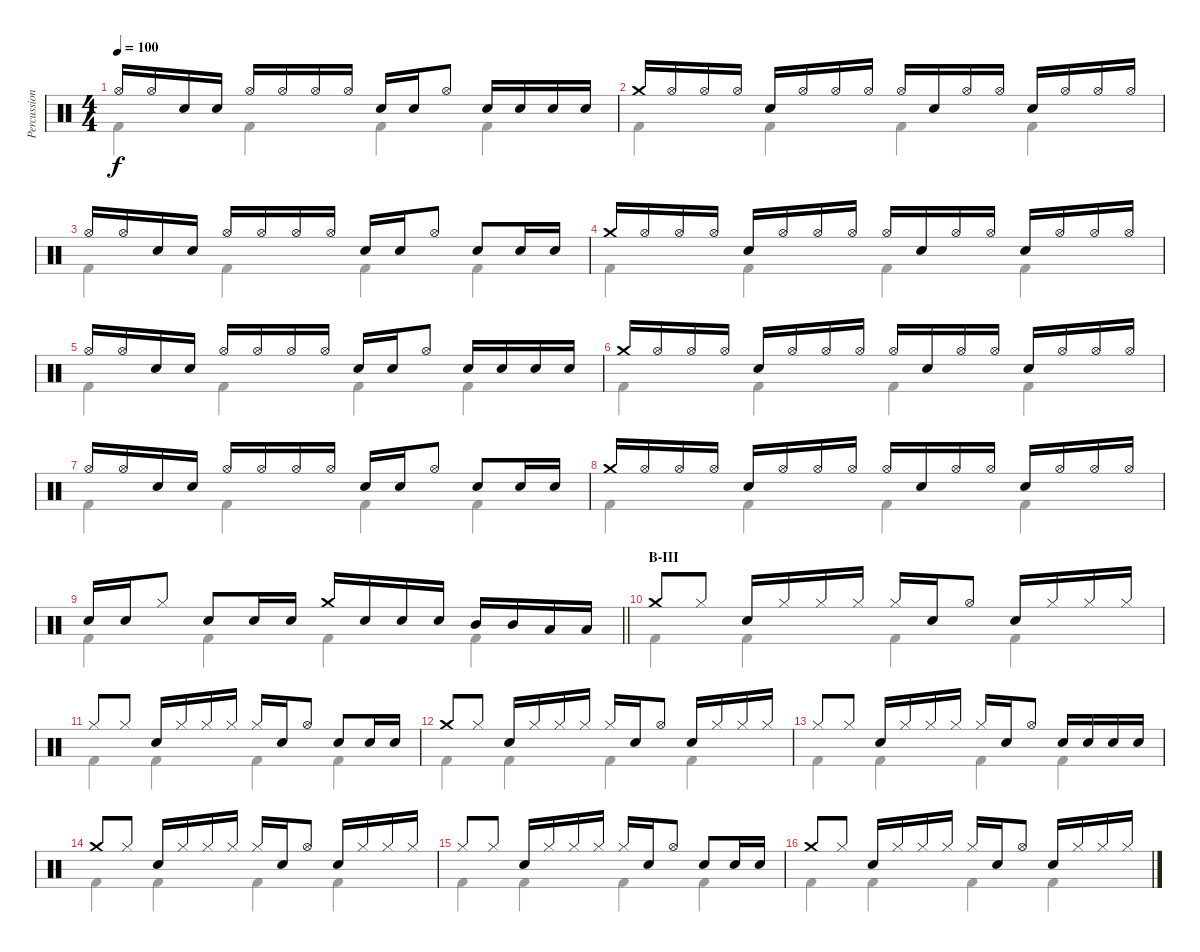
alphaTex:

\track ("Percussion" "Percussion") {instrument percussion}
\staff {score}
\articulation defaults
\voice
\ts (4 4)
\tempo 100
\clef neutral
\ks c "Hi-Hat (open)".16{dy f} "Hi-Hat (open)".16 "Snare (hit) 2".16 "Snare (hit) 2".16 "Hi-Hat (open)".16 "Hi-Hat (open)".16 "Hi-Hat (open)".16 "Hi-Hat (open)".16 "Snare (hit) 2".16 "Snare (hit) 2".16 "Hi-Hat (open)".8 "Snare (hit) 2".16 "Snare (hit) 2".16 "Snare (hit) 2".16 "Snare (hit) 2".16
|
"Crash medium (hit)".16 "Hi-Hat (open)".16 "Hi-Hat (open)".16 "Hi-Hat (open)".16 "Snare (hit) 2".16 "Hi-Hat (open)".16 "Hi-Hat (open)".16 "Hi-Hat (open)".16 "Hi-Hat (open)".16 "Snare (hit) 2".16 "Hi-Hat (open)".16 "Hi-Hat (open)".16 "Snare (hit) 2".16 "Hi-Hat (open)".16 "Hi-Hat (open)".16 "Hi-Hat (open)".16 |
"Hi-Hat (open)".16 "Hi-Hat (open)".16 "Snare (hit) 2".16 "Snare (hit) 2".16 "Hi-Hat (open)".16 "Hi-Hat (open)".16 "Hi-Hat (open)".16 "Hi-Hat (open)".16 "Snare (hit) 2".16 "Snare (hit) 2".16 "Hi-Hat (open)".8 "Snare (hit) 2".8 "Snare (hit) 2".16 "Snare (hit) 2".16 |
"Crash medium (hit)".16 "Hi-Hat (open)".16 "Hi-Hat (open)".16 "Hi-Hat (open)".16 "Snare (hit) 2".16 "Hi-Hat (open)".16 "Hi-Hat (open)".16 "Hi-Hat (open)".16 "Hi-Hat (open)".16 "Snare (hit) 2".16 "Hi-Hat (open)".16 "Hi-Hat (open)".16 "Snare (hit) 2".16 "Hi-Hat (open)".16 "Hi-Hat (open)".16 "Hi-Hat (open)".16 |
"Hi-Hat (open)".16 "Hi-Hat (open)".16 "Snare (hit) 2".16 "Snare (hit) 2".16 "Hi-Hat (open)".16 "Hi-Hat (open)".16 "Hi-Hat (open)".16 "Hi-Hat (open)".16 "Snare (hit) 2".16 "Snare (hit) 2".16 "Hi-Hat (open)".8 "Snare (hit) 2".16 "Snare (hit) 2".16 "Snare (hit) 2".16 "Snare (hit) 2".16 |
"Crash medium (hit)".16 "Hi-Hat (open)".16 "Hi-Hat (open)".16 "Hi-Hat (open)".16 "Snare (hit) 2".16 "Hi-Hat (open)".16 "Hi-Hat (open)".16 "Hi-Hat (open)".16 "Hi-Hat (open)".16 "Snare (hit) 2".16 "Hi-Hat (open)".16 "Hi-Hat (open)".16 "Snare (hit) 2".16 "Hi-Hat (open)".16 "Hi-Hat (open)".16 "Hi-Hat (open)".16 |
"Hi-Hat (open)".16 "Hi-Hat (open)".16 "Snare (hit) 2".16 "Snare (hit) 2".16 "Hi-Hat (open)".16 "Hi-Hat (open)".16 "Hi-Hat (open)".16 "Hi-Hat (open)".16 "Snare (hit) 2".16 "Snare (hit) 2".16 "Hi-Hat (open)".8 "Snare (hit) 2".8 "Snare (hit) 2".16 "Snare (hit) 2".16 |
"Crash medium (hit)".16 "Hi-Hat (open)".16 "Hi-Hat (open)".16 "Hi-Hat (open)".16 "Snare (hit) 2".16 "Hi-Hat (open)".16 "Hi-Hat (open)".16 "Hi-Hat (open)".16 "Hi-Hat (open)".16 "Snare (hit) 2".16 "Hi-Hat (open)".16 "Hi-Hat (open)".16 "Snare (hit) 2".16 "Hi-Hat (open)".16 "Hi-Hat (open)".16 "Hi-Hat (open)".16 |
\barLineRight lightlight "Snare (hit) 2".16 "Snare (hit) 2".16 "Hi-Hat (closed)".8 "Snare (hit) 2".8 "Snare (hit) 2".16 "Snare (hit) 2".16 "Crash medium (hit)".16 "Snare (hit) 2".16 "Snare (hit) 2".16 "Snare (hit) 2".16 "Mid Tom (hit)".16 "Mid Tom (hit)".16 "Low Tom (hit)".16 "Low Tom (hit)".16
|
\section ("" "B-III")
"Crash medium (hit)".8 "Hi-Hat (closed)".8 "Snare (hit) 2".16 "Hi-Hat (closed)".16 "Hi-Hat (closed)".16 "Hi-Hat (closed)".16 "Hi-Hat (closed)".16 "Snare (hit) 2".16 "Hi-Hat (open)".8 "Snare (hit) 2".16 "Hi-Hat (closed)".16 "Hi-Hat (closed)".16 "Hi-Hat (closed)".16 |
"Hi-Hat (closed)".8 "Hi-Hat (closed)".8 "Snare (hit) 2".16 "Hi-Hat (closed)".16 "Hi-Hat (closed)".16 "Hi-Hat (closed)".16 "Hi-Hat (closed)".16 "Snare (hit) 2".16 "Hi-Hat (open)".8 "Snare (hit) 2".8 "Snare (hit) 2".16 "Snare (hit) 2".16 |
"Crash medium (hit)".8 "Hi-Hat (closed)".8 "Snare (hit) 2".16 "Hi-Hat (closed)".16 "Hi-Hat (closed)".16 "Hi-Hat (closed)".16 "Hi-Hat (closed)".16 "Snare (hit) 2".16 "Hi-Hat (open)".8 "Snare (hit) 2".16 "Hi-Hat (closed)".16 "Hi-Hat (closed)".16 "Hi-Hat (closed)".16 |
"Hi-Hat (closed)".8 "Hi-Hat (closed)".8 "Snare (hit) 2".16 "Hi-Hat (closed)".16 "Hi-Hat (closed)".16 "Hi-Hat (closed)".16 "Hi-Hat (closed)".16 "Snare (hit) 2".16 "Hi-Hat (open)".8 "Snare (hit) 2".16 "Snare (hit) 2".16 "Snare (hit) 2".16 "Snare (hit) 2".16 |
"Crash medium (hit)".8 "Hi-Hat (closed)".8 "Snare (hit) 2".16 "Hi-Hat (closed)".16 "Hi-Hat (closed)".16 "Hi-Hat (closed)".16 "Hi-Hat (closed)".16 "Snare (hit) 2".16 "Hi-Hat (open)".8 "Snare (hit) 2".16 "Hi-Hat (closed)".16 "Hi-Hat (closed)".16 "Hi-Hat (closed)".16 |
"Hi-Hat (closed)".8 "Hi-Hat (closed)".8 "Snare (hit) 2".16 "Hi-Hat (closed)".16 "Hi-Hat (closed)".16 "Hi-Hat (closed)".16 "Hi-Hat (closed)".16 "Snare (hit) 2".16 "Hi-Hat (open)".8 "Snare (hit) 2".8 "Snare (hit) 2".16 "Snare (hit) 2".16 |
"Crash medium (hit)".8 "Hi-Hat (closed)".8 "Snare (hit) 2".16 "Hi-Hat (closed)".16 "Hi-Hat (closed)".16 "Hi-Hat (closed)".16 "Hi-Hat (closed)".16 "Snare (hit) 2".16 "Hi-Hat (open)".8 "Snare (hit) 2".16 "Hi-Hat (closed)".16 "Hi-Hat (closed)".16 "Hi-Hat (closed)".16
\voice
\clef neutral
\ottava regular
\simile none
\ks c "Kick (hit) 2".4{dy f} "Kick (hit) 2".4 "Kick (hit) 2".4 "Kick (hit) 2".4
|
"Kick (hit) 2".4 "Kick (hit) 2".4 "Kick (hit) 2".4 "Kick (hit) 2".4 |
"Kick (hit) 2".4 "Kick (hit) 2".4 "Kick (hit) 2".4 "Kick (hit) 2".4 |
"Kick (hit) 2".4 "Kick (hit) 2".4 "Kick (hit) 2".4 "Kick (hit) 2".4 |
"Kick (hit) 2".4 "Kick (hit) 2".4 "Kick (hit) 2".4 "Kick (hit) 2".4 |
"Kick (hit) 2".4 "Kick (hit) 2".4 "Kick (hit) 2".4 "Kick (hit) 2".4 |
"Kick (hit) 2".4 "Kick (hit) 2".4 "Kick (hit) 2".4 "Kick (hit) 2".4 |
"Kick (hit) 2".4 "Kick (hit) 2".4 "Kick (hit) 2".4 "Kick (hit) 2".4 |
\barLineRight lightlight "Kick (hit) 2".4 "Kick (hit) 2".4 "Kick (hit) 2".4 "Kick (hit) 2".4
|
"Kick (hit) 2".4 "Kick (hit) 2".4 "Kick (hit) 2".4 "Kick (hit) 2".4 |
"Kick (hit) 2".4 "Kick (hit) 2".4 "Kick (hit) 2".4 "Kick (hit) 2".4 |
"Kick (hit) 2".4 "Kick (hit) 2".4 "Kick (hit) 2".4 "Kick (hit) 2".4 |
"Kick (hit) 2".4 "Kick (hit) 2".4 "Kick (hit) 2".4 "Kick (hit) 2".4 |
"Kick (hit) 2".4 "Kick (hit) 2".4 "Kick (hit) 2".4 "Kick (hit) 2".4 |
"Kick (hit) 2".4 "Kick (hit) 2".4 "Kick (hit) 2".4 "Kick (hit) 2".4 |
"Kick (hit) 2".4 "Kick (hit) 2".4 "Kick (hit) 2".4 "Kick (hit) 2".4
